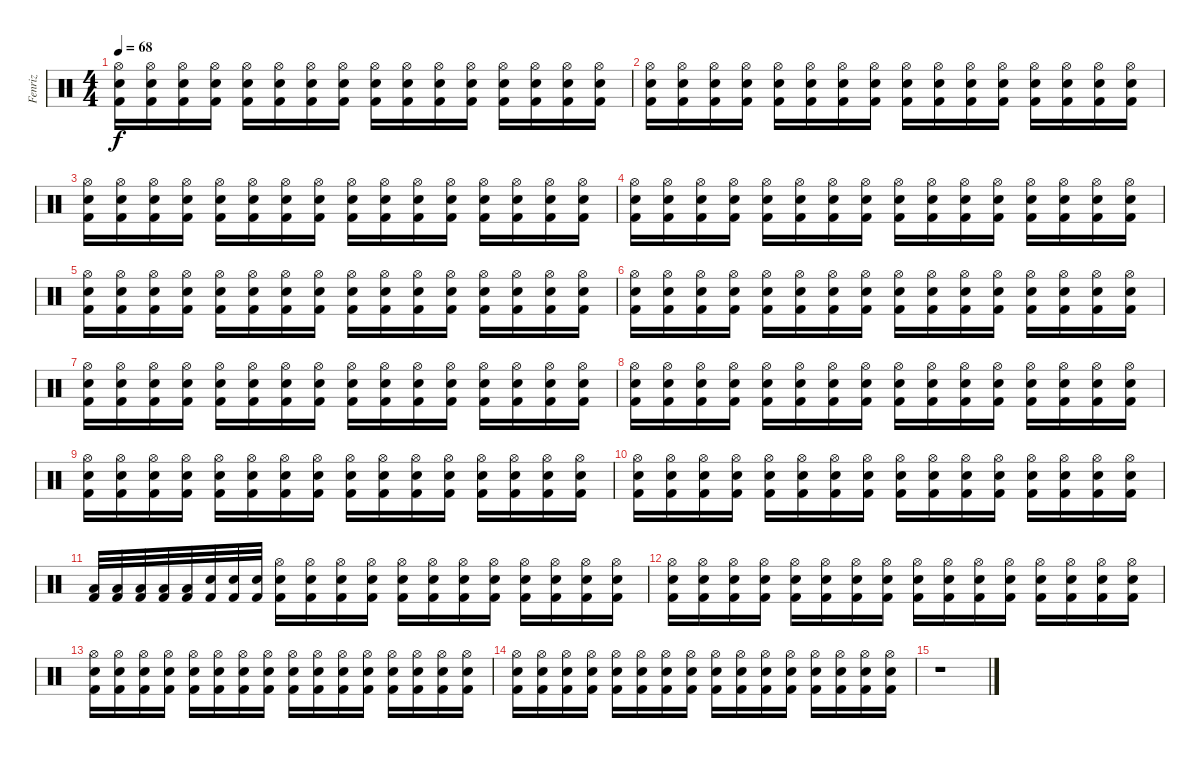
\track ("Fenriz" "Fenriz") {instrument percussion}
\staff {score}
\articulation defaults
\ts (4 4)
\tempo 68
\clef neutral
\ks c
("Hi-Hat (open)" "Snare (hit) 2" "Kick (hit) 2").16{dy f} ("Hi-Hat (open)" "Snare (hit) 2" "Kick (hit) 2").16 ("Hi-Hat (open)" "Snare (hit) 2" "Kick (hit) 2").16 ("Hi-Hat (open)" "Snare (hit) 2" "Kick (hit) 2").16 ("Hi-Hat (open)" "Snare (hit) 2" "Kick (hit) 2").16 ("Hi-Hat (open)" "Snare (hit) 2" "Kick (hit) 2").16 ("Hi-Hat (open)" "Snare (hit) 2" "Kick (hit) 2").16 ("Hi-Hat (open)" "Snare (hit) 2" "Kick (hit) 2").16 ("Hi-Hat (open)" "Snare (hit) 2" "Kick (hit) 2").16 ("Hi-Hat (open)" "Snare (hit) 2" "Kick (hit) 2").16 ("Hi-Hat (open)" "Snare (hit) 2" "Kick (hit) 2").16 ("Hi-Hat (open)" "Snare (hit) 2" "Kick (hit) 2").16 ("Hi-Hat (open)" "Snare (hit) 2" "Kick (hit) 2").16 ("Hi-Hat (open)" "Snare (hit) 2" "Kick (hit) 2").16 ("Hi-Hat (open)" "Snare (hit) 2" "Kick (hit) 2").16 ("Hi-Hat (open)" "Snare (hit) 2" "Kick (hit) 2").16 |
("Hi-Hat (open)" "Snare (hit) 2" "Kick (hit) 2").16 ("Hi-Hat (open)" "Snare (hit) 2" "Kick (hit) 2").16 ("Hi-Hat (open)" "Snare (hit) 2" "Kick (hit) 2").16 ("Hi-Hat (open)" "Snare (hit) 2" "Kick (hit) 2").16 ("Hi-Hat (open)" "Snare (hit) 2" "Kick (hit) 2").16 ("Hi-Hat (open)" "Snare (hit) 2" "Kick (hit) 2").16 ("Hi-Hat (open)" "Snare (hit) 2" "Kick (hit) 2").16 ("Hi-Hat (open)" "Snare (hit) 2" "Kick (hit) 2").16 ("Hi-Hat (open)" "Snare (hit) 2" "Kick (hit) 2").16 ("Hi-Hat (open)" "Snare (hit) 2" "Kick (hit) 2").16 ("Hi-Hat (open)" "Snare (hit) 2" "Kick (hit) 2").16 ("Hi-Hat (open)" "Snare (hit) 2" "Kick (hit) 2").16 ("Hi-Hat (open)" "Snare (hit) 2" "Kick (hit) 2").16 ("Hi-Hat (open)" "Snare (hit) 2" "Kick (hit) 2").16 ("Hi-Hat (open)" "Snare (hit) 2" "Kick (hit) 2").16 ("Hi-Hat (open)" "Snare (hit) 2" "Kick (hit) 2").16 |
("Hi-Hat (open)" "Snare (hit) 2" "Kick (hit) 2").16 ("Hi-Hat (open)" "Snare (hit) 2" "Kick (hit) 2").16 ("Hi-Hat (open)" "Snare (hit) 2" "Kick (hit) 2").16 ("Hi-Hat (open)" "Snare (hit) 2" "Kick (hit) 2").16 ("Hi-Hat (open)" "Snare (hit) 2" "Kick (hit) 2").16 ("Hi-Hat (open)" "Snare (hit) 2" "Kick (hit) 2").16 ("Hi-Hat (open)" "Snare (hit) 2" "Kick (hit) 2").16 ("Hi-Hat (open)" "Snare (hit) 2" "Kick (hit) 2").16 ("Hi-Hat (open)" "Snare (hit) 2" "Kick (hit) 2").16 ("Hi-Hat (open)" "Snare (hit) 2" "Kick (hit) 2").16 ("Hi-Hat (open)" "Snare (hit) 2" "Kick (hit) 2").16 ("Hi-Hat (open)" "Snare (hit) 2" "Kick (hit) 2").16 ("Hi-Hat (open)" "Snare (hit) 2" "Kick (hit) 2").16 ("Hi-Hat (open)" "Snare (hit) 2" "Kick (hit) 2").16 ("Hi-Hat (open)" "Snare (hit) 2" "Kick (hit) 2").16 ("Hi-Hat (open)" "Snare (hit) 2" "Kick (hit) 2").16 |
("Hi-Hat (open)" "Snare (hit) 2" "Kick (hit) 2").16 ("Hi-Hat (open)" "Snare (hit) 2" "Kick (hit) 2").16 ("Hi-Hat (open)" "Snare (hit) 2" "Kick (hit) 2").16 ("Hi-Hat (open)" "Snare (hit) 2" "Kick (hit) 2").16 ("Hi-Hat (open)" "Snare (hit) 2" "Kick (hit) 2").16 ("Hi-Hat (open)" "Snare (hit) 2" "Kick (hit) 2").16 ("Hi-Hat (open)" "Snare (hit) 2" "Kick (hit) 2").16 ("Hi-Hat (open)" "Snare (hit) 2" "Kick (hit) 2").16 ("Hi-Hat (open)" "Snare (hit) 2" "Kick (hit) 2").16 ("Hi-Hat (open)" "Snare (hit) 2" "Kick (hit) 2").16 ("Hi-Hat (open)" "Snare (hit) 2" "Kick (hit) 2").16 ("Hi-Hat (open)" "Snare (hit) 2" "Kick (hit) 2").16 ("Hi-Hat (open)" "Snare (hit) 2" "Kick (hit) 2").16 ("Hi-Hat (open)" "Snare (hit) 2" "Kick (hit) 2").16 ("Hi-Hat (open)" "Snare (hit) 2" "Kick (hit) 2").16 ("Hi-Hat (open)" "Snare (hit) 2" "Kick (hit) 2").16 |
("Hi-Hat (open)" "Snare (hit) 2" "Kick (hit) 2").16 ("Hi-Hat (open)" "Snare (hit) 2" "Kick (hit) 2").16 ("Hi-Hat (open)" "Snare (hit) 2" "Kick (hit) 2").16 ("Hi-Hat (open)" "Snare (hit) 2" "Kick (hit) 2").16 ("Hi-Hat (open)" "Snare (hit) 2" "Kick (hit) 2").16 ("Hi-Hat (open)" "Snare (hit) 2" "Kick (hit) 2").16 ("Hi-Hat (open)" "Snare (hit) 2" "Kick (hit) 2").16 ("Hi-Hat (open)" "Snare (hit) 2" "Kick (hit) 2").16 ("Hi-Hat (open)" "Snare (hit) 2" "Kick (hit) 2").16 ("Hi-Hat (open)" "Snare (hit) 2" "Kick (hit) 2").16 ("Hi-Hat (open)" "Snare (hit) 2" "Kick (hit) 2").16 ("Hi-Hat (open)" "Snare (hit) 2" "Kick (hit) 2").16 ("Hi-Hat (open)" "Snare (hit) 2" "Kick (hit) 2").16 ("Hi-Hat (open)" "Snare (hit) 2" "Kick (hit) 2").16 ("Hi-Hat (open)" "Snare (hit) 2" "Kick (hit) 2").16 ("Hi-Hat (open)" "Snare (hit) 2" "Kick (hit) 2").16 |
("Hi-Hat (open)" "Snare (hit) 2" "Kick (hit) 2").16 ("Hi-Hat (open)" "Snare (hit) 2" "Kick (hit) 2").16 ("Hi-Hat (open)" "Snare (hit) 2" "Kick (hit) 2").16 ("Hi-Hat (open)" "Snare (hit) 2" "Kick (hit) 2").16 ("Hi-Hat (open)" "Snare (hit) 2" "Kick (hit) 2").16 ("Hi-Hat (open)" "Snare (hit) 2" "Kick (hit) 2").16 ("Hi-Hat (open)" "Snare (hit) 2" "Kick (hit) 2").16 ("Hi-Hat (open)" "Snare (hit) 2" "Kick (hit) 2").16 ("Hi-Hat (open)" "Snare (hit) 2" "Kick (hit) 2").16 ("Hi-Hat (open)" "Snare (hit) 2" "Kick (hit) 2").16 ("Hi-Hat (open)" "Snare (hit) 2" "Kick (hit) 2").16 ("Hi-Hat (open)" "Snare (hit) 2" "Kick (hit) 2").16 ("Hi-Hat (open)" "Snare (hit) 2" "Kick (hit) 2").16 ("Hi-Hat (open)" "Snare (hit) 2" "Kick (hit) 2").16 ("Hi-Hat (open)" "Snare (hit) 2" "Kick (hit) 2").16 ("Hi-Hat (open)" "Snare (hit) 2" "Kick (hit) 2").16 |
("Hi-Hat (open)" "Snare (hit) 2" "Kick (hit) 2").16 ("Hi-Hat (open)" "Snare (hit) 2" "Kick (hit) 2").16 ("Hi-Hat (open)" "Snare (hit) 2" "Kick (hit) 2").16 ("Hi-Hat (open)" "Snare (hit) 2" "Kick (hit) 2").16 ("Hi-Hat (open)" "Snare (hit) 2" "Kick (hit) 2").16 ("Hi-Hat (open)" "Snare (hit) 2" "Kick (hit) 2").16 ("Hi-Hat (open)" "Snare (hit) 2" "Kick (hit) 2").16 ("Hi-Hat (open)" "Snare (hit) 2" "Kick (hit) 2").16 ("Hi-Hat (open)" "Snare (hit) 2" "Kick (hit) 2").16 ("Hi-Hat (open)" "Snare (hit) 2" "Kick (hit) 2").16 ("Hi-Hat (open)" "Snare (hit) 2" "Kick (hit) 2").16 ("Hi-Hat (open)" "Snare (hit) 2" "Kick (hit) 2").16 ("Hi-Hat (open)" "Snare (hit) 2" "Kick (hit) 2").16 ("Hi-Hat (open)" "Snare (hit) 2" "Kick (hit) 2").16 ("Hi-Hat (open)" "Snare (hit) 2" "Kick (hit) 2").16 ("Hi-Hat (open)" "Snare (hit) 2" "Kick (hit) 2").16 |
("Hi-Hat (open)" "Snare (hit) 2" "Kick (hit) 2").16 ("Hi-Hat (open)" "Snare (hit) 2" "Kick (hit) 2").16 ("Hi-Hat (open)" "Snare (hit) 2" "Kick (hit) 2").16 ("Hi-Hat (open)" "Snare (hit) 2" "Kick (hit) 2").16 ("Hi-Hat (open)" "Snare (hit) 2" "Kick (hit) 2").16 ("Hi-Hat (open)" "Snare (hit) 2" "Kick (hit) 2").16 ("Hi-Hat (open)" "Snare (hit) 2" "Kick (hit) 2").16 ("Hi-Hat (open)" "Snare (hit) 2" "Kick (hit) 2").16 ("Hi-Hat (open)" "Snare (hit) 2" "Kick (hit) 2").16 ("Hi-Hat (open)" "Snare (hit) 2" "Kick (hit) 2").16 ("Hi-Hat (open)" "Snare (hit) 2" "Kick (hit) 2").16 ("Hi-Hat (open)" "Snare (hit) 2" "Kick (hit) 2").16 ("Hi-Hat (open)" "Snare (hit) 2" "Kick (hit) 2").16 ("Hi-Hat (open)" "Snare (hit) 2" "Kick (hit) 2").16 ("Hi-Hat (open)" "Snare (hit) 2" "Kick (hit) 2").16 ("Hi-Hat (open)" "Snare (hit) 2" "Kick (hit) 2").16 |
("Hi-Hat (open)" "Snare (hit) 2" "Kick (hit) 2").16 ("Hi-Hat (open)" "Snare (hit) 2" "Kick (hit) 2").16 ("Hi-Hat (open)" "Snare (hit) 2" "Kick (hit) 2").16 ("Hi-Hat (open)" "Snare (hit) 2" "Kick (hit) 2").16 ("Hi-Hat (open)" "Snare (hit) 2" "Kick (hit) 2").16 ("Hi-Hat (open)" "Snare (hit) 2" "Kick (hit) 2").16 ("Hi-Hat (open)" "Snare (hit) 2" "Kick (hit) 2").16 ("Hi-Hat (open)" "Snare (hit) 2" "Kick (hit) 2").16 ("Hi-Hat (open)" "Snare (hit) 2" "Kick (hit) 2").16 ("Hi-Hat (open)" "Snare (hit) 2" "Kick (hit) 2").16 ("Hi-Hat (open)" "Snare (hit) 2" "Kick (hit) 2").16 ("Hi-Hat (open)" "Snare (hit) 2" "Kick (hit) 2").16 ("Hi-Hat (open)" "Snare (hit) 2" "Kick (hit) 2").16 ("Hi-Hat (open)" "Snare (hit) 2" "Kick (hit) 2").16 ("Hi-Hat (open)" "Snare (hit) 2" "Kick (hit) 2").16 ("Hi-Hat (open)" "Snare (hit) 2" "Kick (hit) 2").16 |
("Hi-Hat (open)" "Snare (hit) 2" "Kick (hit) 2").16 ("Hi-Hat (open)" "Snare (hit) 2" "Kick (hit) 2").16 ("Hi-Hat (open)" "Snare (hit) 2" "Kick (hit) 2").16 ("Hi-Hat (open)" "Snare (hit) 2" "Kick (hit) 2").16 ("Hi-Hat (open)" "Snare (hit) 2" "Kick (hit) 2").16 ("Hi-Hat (open)" "Snare (hit) 2" "Kick (hit) 2").16 ("Hi-Hat (open)" "Snare (hit) 2" "Kick (hit) 2").16 ("Hi-Hat (open)" "Snare (hit) 2" "Kick (hit) 2").16 ("Hi-Hat (open)" "Snare (hit) 2" "Kick (hit) 2").16 ("Hi-Hat (open)" "Snare (hit) 2" "Kick (hit) 2").16 ("Hi-Hat (open)" "Snare (hit) 2" "Kick (hit) 2").16 ("Hi-Hat (open)" "Snare (hit) 2" "Kick (hit) 2").16 ("Hi-Hat (open)" "Snare (hit) 2" "Kick (hit) 2").16 ("Hi-Hat (open)" "Snare (hit) 2" "Kick (hit) 2").16 ("Hi-Hat (open)" "Snare (hit) 2" "Kick (hit) 2").16 ("Hi-Hat (open)" "Snare (hit) 2" "Kick (hit) 2").16 |
("Low Floor Tom (hit)" "Kick (hit) 2").32 ("Low Floor Tom (hit)" "Kick (hit) 2").32 ("Low Floor Tom (hit)" "Kick (hit) 2").32 ("Low Floor Tom (hit)" "Kick (hit) 2").32 ("Low Floor Tom (hit)" "Kick (hit) 2").32 ("Snare (hit) 2" "Kick (hit) 2").32 ("Snare (hit) 2" "Kick (hit) 2").32 ("Snare (hit) 2" "Kick (hit) 2").32 ("Hi-Hat (open)" "Snare (hit) 2" "Kick (hit) 2").16 ("Hi-Hat (open)" "Snare (hit) 2" "Kick (hit) 2").16 ("Hi-Hat (open)" "Snare (hit) 2" "Kick (hit) 2").16 ("Hi-Hat (open)" "Snare (hit) 2" "Kick (hit) 2").16 ("Hi-Hat (open)" "Snare (hit) 2" "Kick (hit) 2").16 ("Hi-Hat (open)" "Snare (hit) 2" "Kick (hit) 2").16 ("Hi-Hat (open)" "Snare (hit) 2" "Kick (hit) 2").16 ("Hi-Hat (open)" "Snare (hit) 2" "Kick (hit) 2").16 ("Hi-Hat (open)" "Snare (hit) 2" "Kick (hit) 2").16 ("Hi-Hat (open)" "Snare (hit) 2" "Kick (hit) 2").16 ("Hi-Hat (open)" "Snare (hit) 2" "Kick (hit) 2").16 ("Hi-Hat (open)" "Snare (hit) 2" "Kick (hit) 2").16 |
("Hi-Hat (open)" "Snare (hit) 2" "Kick (hit) 2").16 ("Hi-Hat (open)" "Snare (hit) 2" "Kick (hit) 2").16 ("Hi-Hat (open)" "Snare (hit) 2" "Kick (hit) 2").16 ("Hi-Hat (open)" "Snare (hit) 2" "Kick (hit) 2").16 ("Hi-Hat (open)" "Snare (hit) 2" "Kick (hit) 2").16 ("Hi-Hat (open)" "Snare (hit) 2" "Kick (hit) 2").16 ("Hi-Hat (open)" "Snare (hit) 2" "Kick (hit) 2").16 ("Hi-Hat (open)" "Snare (hit) 2" "Kick (hit) 2").16 ("Hi-Hat (open)" "Snare (hit) 2" "Kick (hit) 2").16 ("Hi-Hat (open)" "Snare (hit) 2" "Kick (hit) 2").16 ("Hi-Hat (open)" "Snare (hit) 2" "Kick (hit) 2").16 ("Hi-Hat (open)" "Snare (hit) 2" "Kick (hit) 2").16 ("Hi-Hat (open)" "Snare (hit) 2" "Kick (hit) 2").16 ("Hi-Hat (open)" "Snare (hit) 2" "Kick (hit) 2").16 ("Hi-Hat (open)" "Snare (hit) 2" "Kick (hit) 2").16 ("Hi-Hat (open)" "Snare (hit) 2" "Kick (hit) 2").16 |
("Hi-Hat (open)" "Snare (hit) 2" "Kick (hit) 2").16 ("Hi-Hat (open)" "Snare (hit) 2" "Kick (hit) 2").16 ("Hi-Hat (open)" "Snare (hit) 2" "Kick (hit) 2").16{volume 6} ("Hi-Hat (open)" "Snare (hit) 2" "Kick (hit) 2").16 ("Hi-Hat (open)" "Snare (hit) 2" "Kick (hit) 2").16 ("Hi-Hat (open)" "Snare (hit) 2" "Kick (hit) 2").16 ("Hi-Hat (open)" "Snare (hit) 2" "Kick (hit) 2").16 ("Hi-Hat (open)" "Snare (hit) 2" "Kick (hit) 2").16 ("Hi-Hat (open)" "Snare (hit) 2" "Kick (hit) 2").16 ("Hi-Hat (open)" "Snare (hit) 2" "Kick (hit) 2").16 ("Hi-Hat (open)" "Snare (hit) 2" "Kick (hit) 2").16{volume 4} ("Hi-Hat (open)" "Snare (hit) 2" "Kick (hit) 2").16 ("Hi-Hat (open)" "Snare (hit) 2" "Kick (hit) 2").16 ("Hi-Hat (open)" "Snare (hit) 2" "Kick (hit) 2").16 ("Hi-Hat (open)" "Snare (hit) 2" "Kick (hit) 2").16 ("Hi-Hat (open)" "Snare (hit) 2" "Kick (hit) 2").16 |
("Hi-Hat (open)" "Snare (hit) 2" "Kick (hit) 2").16 ("Hi-Hat (open)" "Snare (hit) 2" "Kick (hit) 2").16 ("Hi-Hat (open)" "Snare (hit) 2" "Kick (hit) 2").16{volume 3} ("Hi-Hat (open)" "Snare (hit) 2" "Kick (hit) 2").16 ("Hi-Hat (open)" "Snare (hit) 2" "Kick (hit) 2").16 ("Hi-Hat (open)" "Snare (hit) 2" "Kick (hit) 2").16 ("Hi-Hat (open)" "Snare (hit) 2" "Kick (hit) 2").16 ("Hi-Hat (open)" "Snare (hit) 2" "Kick (hit) 2").16 ("Hi-Hat (open)" "Snare (hit) 2" "Kick (hit) 2").16 ("Hi-Hat (open)" "Snare (hit) 2" "Kick (hit) 2").16{volume 2} ("Hi-Hat (open)" "Snare (hit) 2" "Kick (hit) 2").16 ("Hi-Hat (open)" "Snare (hit) 2" "Kick (hit) 2").16 ("Hi-Hat (open)" "Snare (hit) 2" "Kick (hit) 2").16 ("Hi-Hat (open)" "Snare (hit) 2" "Kick (hit) 2").16 ("Hi-Hat (open)" "Snare (hit) 2" "Kick (hit) 2").16 ("Hi-Hat (open)" "Snare (hit) 2" "Kick (hit) 2").16{volume 1} |
r.1
